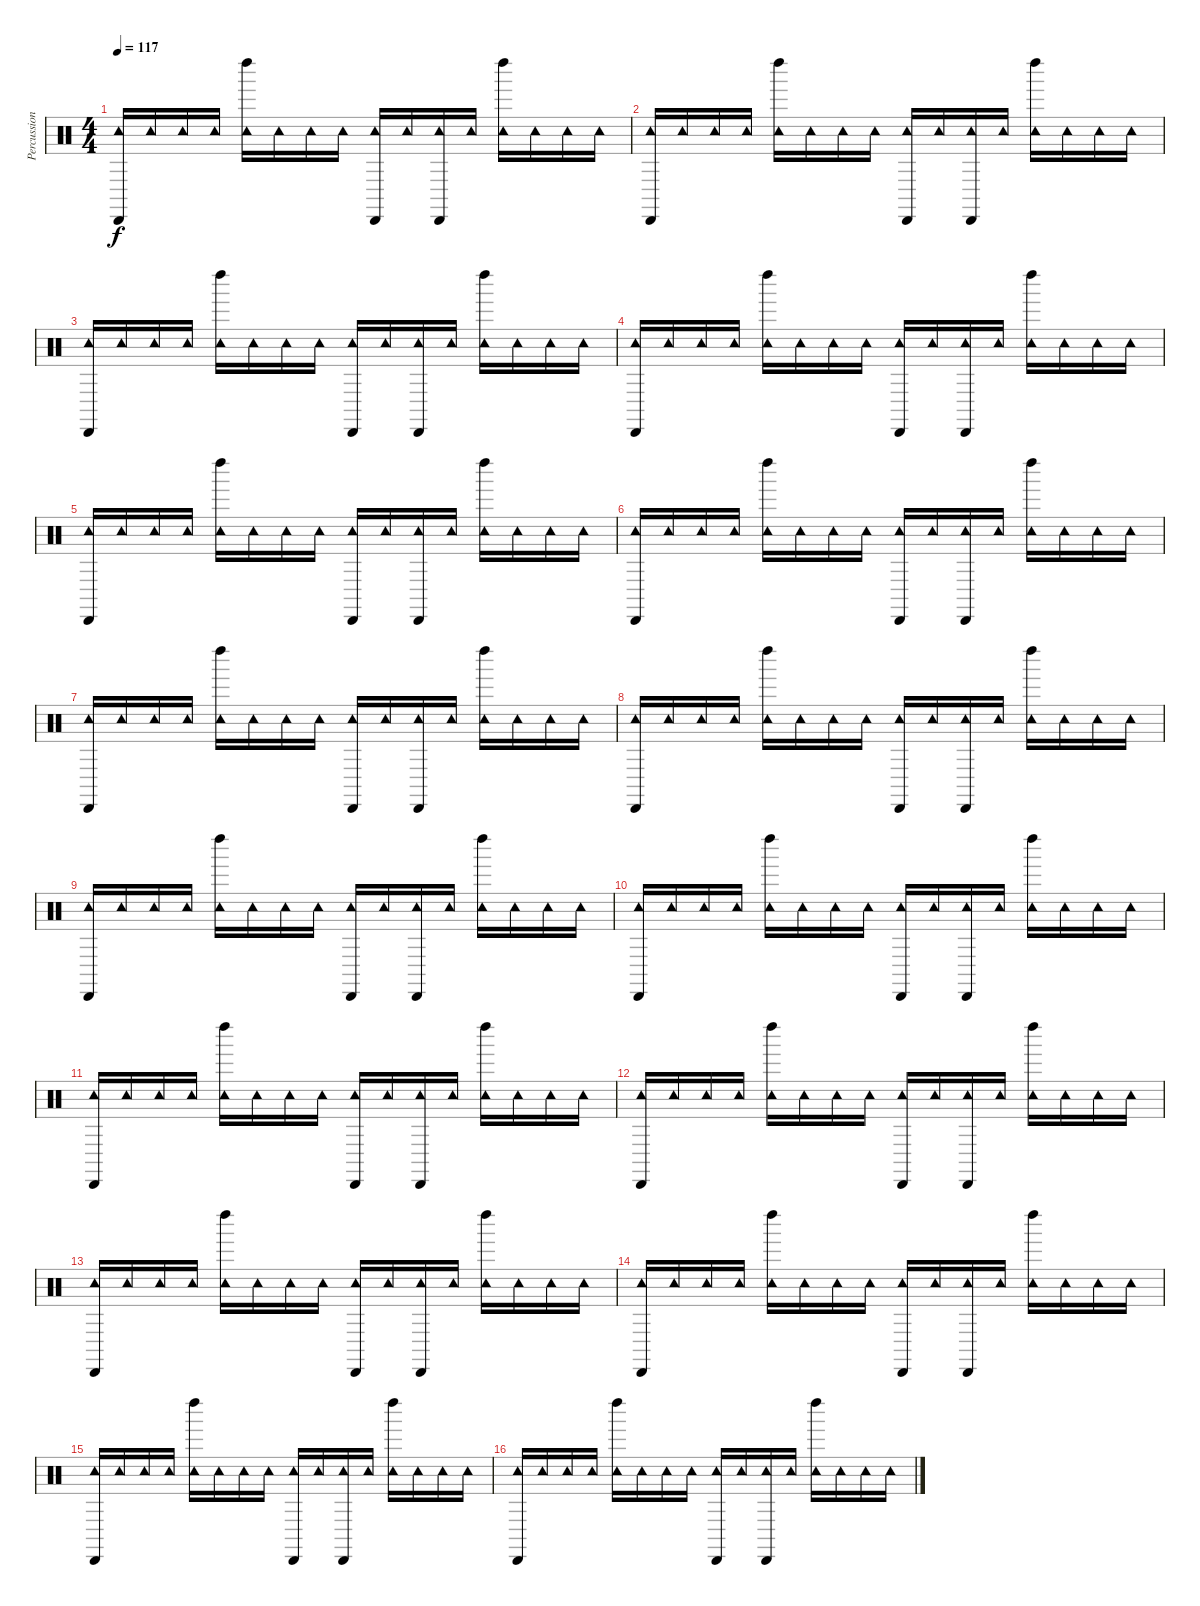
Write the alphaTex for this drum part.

\track ("Percussion" "Percussion") {instrument percussion}
\staff {score}
\articulation defaults
\ts (4 4)
\tempo 117
\clef neutral
\ks c
("Tambourine (hit)" "Cabasa (hit)").16{dy f} "Tambourine (hit)".16 "Tambourine (hit)".16 "Tambourine (hit)".16 ("Tambourine (hit)" "Left Maraca (hit)").16 "Tambourine (hit)".16 "Tambourine (hit)".16 "Tambourine (hit)".16 ("Tambourine (hit)" "Cabasa (hit)").16 "Tambourine (hit)".16 ("Tambourine (hit)" "Cabasa (hit)").16 "Tambourine (hit)".16 ("Tambourine (hit)" "Left Maraca (hit)").16 "Tambourine (hit)".16 "Tambourine (hit)".16 "Tambourine (hit)".16 |
("Tambourine (hit)" "Cabasa (hit)").16 "Tambourine (hit)".16 "Tambourine (hit)".16 "Tambourine (hit)".16 ("Tambourine (hit)" "Left Maraca (hit)").16 "Tambourine (hit)".16 "Tambourine (hit)".16 "Tambourine (hit)".16 ("Tambourine (hit)" "Cabasa (hit)").16 "Tambourine (hit)".16 ("Tambourine (hit)" "Cabasa (hit)").16 "Tambourine (hit)".16 ("Tambourine (hit)" "Left Maraca (hit)").16 "Tambourine (hit)".16 "Tambourine (hit)".16 "Tambourine (hit)".16 |
("Tambourine (hit)" "Cabasa (hit)").16 "Tambourine (hit)".16 "Tambourine (hit)".16 "Tambourine (hit)".16 ("Tambourine (hit)" "Left Maraca (hit)").16 "Tambourine (hit)".16 "Tambourine (hit)".16 "Tambourine (hit)".16 ("Tambourine (hit)" "Cabasa (hit)").16 "Tambourine (hit)".16 ("Tambourine (hit)" "Cabasa (hit)").16 "Tambourine (hit)".16 ("Tambourine (hit)" "Left Maraca (hit)").16 "Tambourine (hit)".16 "Tambourine (hit)".16 "Tambourine (hit)".16 |
("Tambourine (hit)" "Cabasa (hit)").16 "Tambourine (hit)".16 "Tambourine (hit)".16 "Tambourine (hit)".16 ("Tambourine (hit)" "Left Maraca (hit)").16 "Tambourine (hit)".16 "Tambourine (hit)".16 "Tambourine (hit)".16 ("Tambourine (hit)" "Cabasa (hit)").16 "Tambourine (hit)".16 ("Tambourine (hit)" "Cabasa (hit)").16 "Tambourine (hit)".16 ("Tambourine (hit)" "Left Maraca (hit)").16 "Tambourine (hit)".16 "Tambourine (hit)".16 "Tambourine (hit)".16 |
("Tambourine (hit)" "Cabasa (hit)").16 "Tambourine (hit)".16 "Tambourine (hit)".16 "Tambourine (hit)".16 ("Tambourine (hit)" "Left Maraca (hit)").16 "Tambourine (hit)".16 "Tambourine (hit)".16 "Tambourine (hit)".16 ("Tambourine (hit)" "Cabasa (hit)").16 "Tambourine (hit)".16 ("Tambourine (hit)" "Cabasa (hit)").16 "Tambourine (hit)".16 ("Tambourine (hit)" "Left Maraca (hit)").16 "Tambourine (hit)".16 "Tambourine (hit)".16 "Tambourine (hit)".16 |
("Tambourine (hit)" "Cabasa (hit)").16 "Tambourine (hit)".16 "Tambourine (hit)".16 "Tambourine (hit)".16 ("Tambourine (hit)" "Left Maraca (hit)").16 "Tambourine (hit)".16 "Tambourine (hit)".16 "Tambourine (hit)".16 ("Tambourine (hit)" "Cabasa (hit)").16 "Tambourine (hit)".16 ("Tambourine (hit)" "Cabasa (hit)").16 "Tambourine (hit)".16 ("Tambourine (hit)" "Left Maraca (hit)").16 "Tambourine (hit)".16 "Tambourine (hit)".16 "Tambourine (hit)".16 |
("Tambourine (hit)" "Cabasa (hit)").16 "Tambourine (hit)".16 "Tambourine (hit)".16 "Tambourine (hit)".16 ("Tambourine (hit)" "Left Maraca (hit)").16 "Tambourine (hit)".16 "Tambourine (hit)".16 "Tambourine (hit)".16 ("Tambourine (hit)" "Cabasa (hit)").16 "Tambourine (hit)".16 ("Tambourine (hit)" "Cabasa (hit)").16 "Tambourine (hit)".16 ("Tambourine (hit)" "Left Maraca (hit)").16 "Tambourine (hit)".16 "Tambourine (hit)".16 "Tambourine (hit)".16 |
("Tambourine (hit)" "Cabasa (hit)").16 "Tambourine (hit)".16 "Tambourine (hit)".16 "Tambourine (hit)".16 ("Tambourine (hit)" "Left Maraca (hit)").16 "Tambourine (hit)".16 "Tambourine (hit)".16 "Tambourine (hit)".16 ("Tambourine (hit)" "Cabasa (hit)").16 "Tambourine (hit)".16 ("Tambourine (hit)" "Cabasa (hit)").16 "Tambourine (hit)".16 ("Tambourine (hit)" "Left Maraca (hit)").16 "Tambourine (hit)".16 "Tambourine (hit)".16 "Tambourine (hit)".16 |
("Tambourine (hit)" "Cabasa (hit)").16 "Tambourine (hit)".16 "Tambourine (hit)".16 "Tambourine (hit)".16 ("Tambourine (hit)" "Left Maraca (hit)").16 "Tambourine (hit)".16 "Tambourine (hit)".16 "Tambourine (hit)".16 ("Tambourine (hit)" "Cabasa (hit)").16 "Tambourine (hit)".16 ("Tambourine (hit)" "Cabasa (hit)").16 "Tambourine (hit)".16 ("Tambourine (hit)" "Left Maraca (hit)").16 "Tambourine (hit)".16 "Tambourine (hit)".16 "Tambourine (hit)".16 |
("Tambourine (hit)" "Cabasa (hit)").16 "Tambourine (hit)".16 "Tambourine (hit)".16 "Tambourine (hit)".16 ("Tambourine (hit)" "Left Maraca (hit)").16 "Tambourine (hit)".16 "Tambourine (hit)".16 "Tambourine (hit)".16 ("Tambourine (hit)" "Cabasa (hit)").16 "Tambourine (hit)".16 ("Tambourine (hit)" "Cabasa (hit)").16 "Tambourine (hit)".16 ("Tambourine (hit)" "Left Maraca (hit)").16 "Tambourine (hit)".16 "Tambourine (hit)".16 "Tambourine (hit)".16 |
("Tambourine (hit)" "Cabasa (hit)").16 "Tambourine (hit)".16 "Tambourine (hit)".16 "Tambourine (hit)".16 ("Tambourine (hit)" "Left Maraca (hit)").16 "Tambourine (hit)".16 "Tambourine (hit)".16 "Tambourine (hit)".16 ("Tambourine (hit)" "Cabasa (hit)").16 "Tambourine (hit)".16 ("Tambourine (hit)" "Cabasa (hit)").16 "Tambourine (hit)".16 ("Tambourine (hit)" "Left Maraca (hit)").16 "Tambourine (hit)".16 "Tambourine (hit)".16 "Tambourine (hit)".16 |
("Tambourine (hit)" "Cabasa (hit)").16 "Tambourine (hit)".16 "Tambourine (hit)".16 "Tambourine (hit)".16 ("Tambourine (hit)" "Left Maraca (hit)").16 "Tambourine (hit)".16 "Tambourine (hit)".16 "Tambourine (hit)".16 ("Tambourine (hit)" "Cabasa (hit)").16 "Tambourine (hit)".16 ("Tambourine (hit)" "Cabasa (hit)").16 "Tambourine (hit)".16 ("Tambourine (hit)" "Left Maraca (hit)").16 "Tambourine (hit)".16 "Tambourine (hit)".16 "Tambourine (hit)".16 |
("Tambourine (hit)" "Cabasa (hit)").16 "Tambourine (hit)".16 "Tambourine (hit)".16 "Tambourine (hit)".16 ("Tambourine (hit)" "Left Maraca (hit)").16 "Tambourine (hit)".16 "Tambourine (hit)".16 "Tambourine (hit)".16 ("Tambourine (hit)" "Cabasa (hit)").16 "Tambourine (hit)".16 ("Tambourine (hit)" "Cabasa (hit)").16 "Tambourine (hit)".16 ("Tambourine (hit)" "Left Maraca (hit)").16 "Tambourine (hit)".16 "Tambourine (hit)".16 "Tambourine (hit)".16 |
("Tambourine (hit)" "Cabasa (hit)").16 "Tambourine (hit)".16 "Tambourine (hit)".16 "Tambourine (hit)".16 ("Tambourine (hit)" "Left Maraca (hit)").16 "Tambourine (hit)".16 "Tambourine (hit)".16 "Tambourine (hit)".16 ("Tambourine (hit)" "Cabasa (hit)").16 "Tambourine (hit)".16 ("Tambourine (hit)" "Cabasa (hit)").16 "Tambourine (hit)".16 ("Tambourine (hit)" "Left Maraca (hit)").16 "Tambourine (hit)".16 "Tambourine (hit)".16 "Tambourine (hit)".16 |
("Tambourine (hit)" "Cabasa (hit)").16 "Tambourine (hit)".16 "Tambourine (hit)".16 "Tambourine (hit)".16 ("Tambourine (hit)" "Left Maraca (hit)").16 "Tambourine (hit)".16 "Tambourine (hit)".16 "Tambourine (hit)".16 ("Tambourine (hit)" "Cabasa (hit)").16 "Tambourine (hit)".16 ("Tambourine (hit)" "Cabasa (hit)").16 "Tambourine (hit)".16 ("Tambourine (hit)" "Left Maraca (hit)").16 "Tambourine (hit)".16 "Tambourine (hit)".16 "Tambourine (hit)".16 |
("Tambourine (hit)" "Cabasa (hit)").16 "Tambourine (hit)".16 "Tambourine (hit)".16 "Tambourine (hit)".16 ("Tambourine (hit)" "Left Maraca (hit)").16 "Tambourine (hit)".16 "Tambourine (hit)".16 "Tambourine (hit)".16 ("Tambourine (hit)" "Cabasa (hit)").16 "Tambourine (hit)".16 ("Tambourine (hit)" "Cabasa (hit)").16 "Tambourine (hit)".16 ("Tambourine (hit)" "Left Maraca (hit)").16 "Tambourine (hit)".16 "Tambourine (hit)".16 "Tambourine (hit)".16
